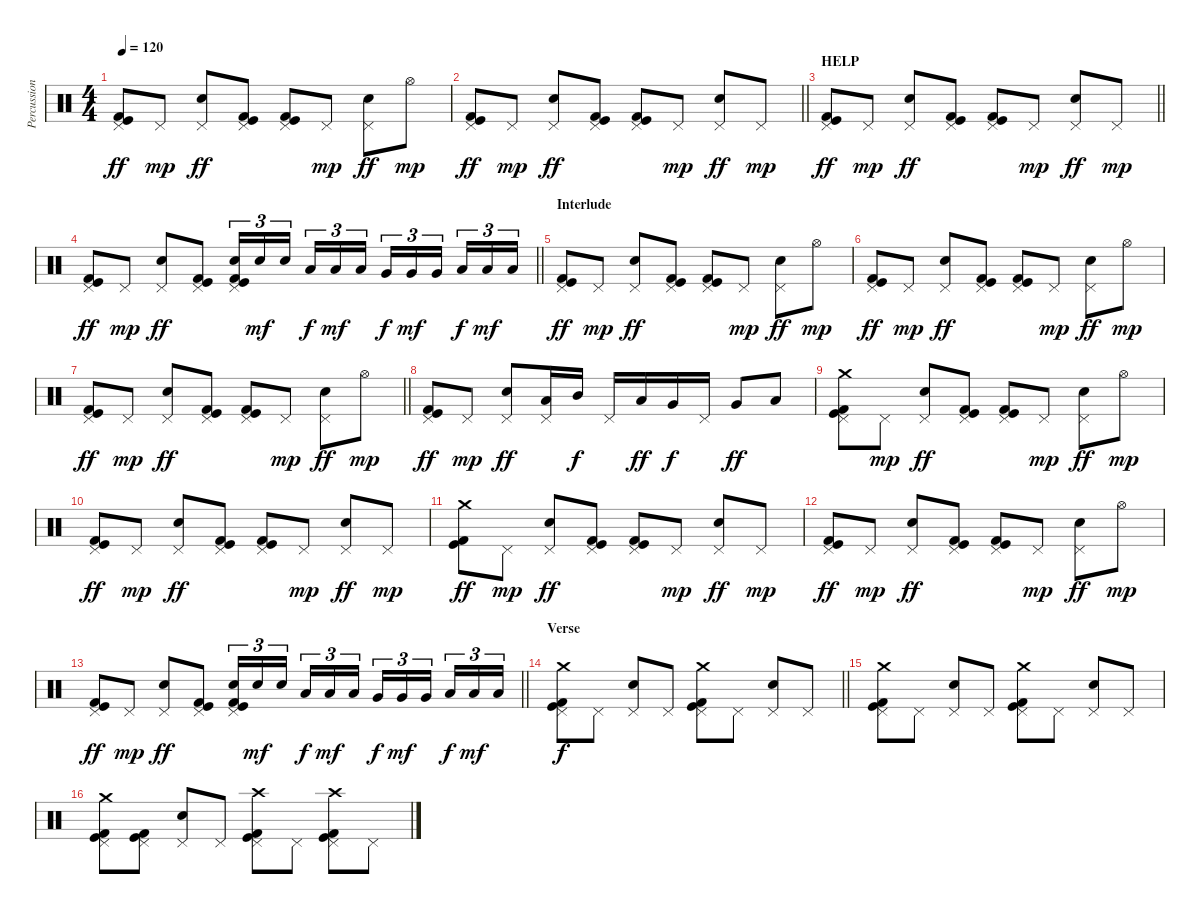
\track ("Percussion" "Percussion") {instrument percussion}
\staff {score}
\articulation defaults
\ts (4 4)
\tempo 120
\clef neutral
\ks c
("Pedal Hi-Hat (hit)" "Kick (hit) 2" "Kick (hit)").8{dy ff} "Pedal Hi-Hat (hit)".8{dy mp} ("Pedal Hi-Hat (hit)" "Electric Snare (hit)").8{dy ff} ("Pedal Hi-Hat (hit)" "Kick (hit) 2" "Kick (hit)").8 ("Pedal Hi-Hat (hit)" "Kick (hit) 2" "Kick (hit)").8 "Pedal Hi-Hat (hit)".8{dy mp} ("Pedal Hi-Hat (hit)" "Electric Snare (hit)").8{dy ff} "Hi-Hat (open)".8{dy mp} |
\barLineRight lightlight
("Pedal Hi-Hat (hit)" "Kick (hit) 2" "Kick (hit)").8{dy ff} "Pedal Hi-Hat (hit)".8{dy mp} ("Pedal Hi-Hat (hit)" "Electric Snare (hit)").8{dy ff} ("Pedal Hi-Hat (hit)" "Kick (hit) 2" "Kick (hit)").8 ("Pedal Hi-Hat (hit)" "Kick (hit) 2" "Kick (hit)").8 "Pedal Hi-Hat (hit)".8{dy mp} ("Pedal Hi-Hat (hit)" "Electric Snare (hit)").8{dy ff} "Pedal Hi-Hat (hit)".8{dy mp} |
\section ("" "HELP")
\barLineRight lightlight
("Pedal Hi-Hat (hit)" "Kick (hit) 2" "Kick (hit)").8{dy ff} "Pedal Hi-Hat (hit)".8{dy mp} ("Pedal Hi-Hat (hit)" "Electric Snare (hit)").8{dy ff} ("Pedal Hi-Hat (hit)" "Kick (hit) 2" "Kick (hit)").8 ("Pedal Hi-Hat (hit)" "Kick (hit) 2" "Kick (hit)").8 "Pedal Hi-Hat (hit)".8{dy mp} ("Pedal Hi-Hat (hit)" "Electric Snare (hit)").8{dy ff} "Pedal Hi-Hat (hit)".8{dy mp} |
\barLineRight lightlight
("Pedal Hi-Hat (hit)" "Kick (hit) 2" "Kick (hit)").8{dy ff} "Pedal Hi-Hat (hit)".8{dy mp} ("Pedal Hi-Hat (hit)" "Electric Snare (hit)").8{dy ff} ("Pedal Hi-Hat (hit)" "Kick (hit) 2" "Kick (hit)").8 ("Pedal Hi-Hat (hit)" "Electric Snare (hit)" "Kick (hit) 2" "Kick (hit)").16{tu (3 2)} "Electric Snare (hit)".16{tu (3 2) dy mf} "Electric Snare (hit)".16{tu (3 2) beam splitsecondary} "Low Tom (hit)".16{tu (3 2) dy f} "Low Tom (hit)".16{tu (3 2) dy mf} "Low Tom (hit)".16{tu (3 2)} "Very Low Tom (hit)".16{tu (3 2) dy f} "Very Low Tom (hit)".16{tu (3 2) dy mf} "Very Low Tom (hit)".16{tu (3 2) beam splitsecondary} "Low Floor Tom (hit)".16{tu (3 2) dy f} "Low Floor Tom (hit)".16{tu (3 2) dy mf} "Low Floor Tom (hit)".16{tu (3 2)} |
\section ("" "Interlude")
("Pedal Hi-Hat (hit)" "Kick (hit) 2" "Kick (hit)").8{dy ff} "Pedal Hi-Hat (hit)".8{dy mp} ("Pedal Hi-Hat (hit)" "Electric Snare (hit)").8{dy ff} ("Pedal Hi-Hat (hit)" "Kick (hit) 2" "Kick (hit)").8 ("Pedal Hi-Hat (hit)" "Kick (hit) 2" "Kick (hit)").8 "Pedal Hi-Hat (hit)".8{dy mp} ("Pedal Hi-Hat (hit)" "Electric Snare (hit)").8{dy ff} "Hi-Hat (open)".8{dy mp} |
("Pedal Hi-Hat (hit)" "Kick (hit) 2" "Kick (hit)").8{dy ff} "Pedal Hi-Hat (hit)".8{dy mp} ("Pedal Hi-Hat (hit)" "Electric Snare (hit)").8{dy ff} ("Pedal Hi-Hat (hit)" "Kick (hit) 2" "Kick (hit)").8 ("Pedal Hi-Hat (hit)" "Kick (hit) 2" "Kick (hit)").8 "Pedal Hi-Hat (hit)".8{dy mp} ("Pedal Hi-Hat (hit)" "Electric Snare (hit)").8{dy ff} "Hi-Hat (open)".8{dy mp} |
\barLineRight lightlight
("Pedal Hi-Hat (hit)" "Kick (hit) 2" "Kick (hit)").8{dy ff} "Pedal Hi-Hat (hit)".8{dy mp} ("Pedal Hi-Hat (hit)" "Electric Snare (hit)").8{dy ff} ("Pedal Hi-Hat (hit)" "Kick (hit) 2" "Kick (hit)").8 ("Pedal Hi-Hat (hit)" "Kick (hit) 2" "Kick (hit)").8 "Pedal Hi-Hat (hit)".8{dy mp} ("Pedal Hi-Hat (hit)" "Electric Snare (hit)").8{dy ff} "Hi-Hat (open)".8{dy mp} |
("Pedal Hi-Hat (hit)" "Kick (hit) 2" "Kick (hit)").8{dy ff} "Pedal Hi-Hat (hit)".8{dy mp} ("Pedal Hi-Hat (hit)" "Electric Snare (hit)").8{dy ff} ("Pedal Hi-Hat (hit)" "Low Tom (hit)").16 "Mid Tom (hit)".16{dy f} "Pedal Hi-Hat (hit)".16 "Low Tom (hit)".16{dy ff} "Very Low Tom (hit)".16{dy f} "Pedal Hi-Hat (hit)".16 "Very Low Tom (hit)".8{dy ff} "Low Floor Tom (hit)".8 |
("Crash medium (hit)" "Pedal Hi-Hat (hit)" "Kick (hit) 2" "Kick (hit)").8 "Pedal Hi-Hat (hit)".8{dy mp} ("Pedal Hi-Hat (hit)" "Electric Snare (hit)").8{dy ff} ("Pedal Hi-Hat (hit)" "Kick (hit) 2" "Kick (hit)").8 ("Pedal Hi-Hat (hit)" "Kick (hit) 2" "Kick (hit)").8 "Pedal Hi-Hat (hit)".8{dy mp} ("Pedal Hi-Hat (hit)" "Electric Snare (hit)").8{dy ff} "Hi-Hat (open)".8{dy mp} |
("Pedal Hi-Hat (hit)" "Kick (hit) 2" "Kick (hit)").8{dy ff} "Pedal Hi-Hat (hit)".8{dy mp} ("Pedal Hi-Hat (hit)" "Electric Snare (hit)").8{dy ff} ("Pedal Hi-Hat (hit)" "Kick (hit) 2" "Kick (hit)").8 ("Pedal Hi-Hat (hit)" "Kick (hit) 2" "Kick (hit)").8 "Pedal Hi-Hat (hit)".8{dy mp} ("Pedal Hi-Hat (hit)" "Electric Snare (hit)").8{dy ff} "Pedal Hi-Hat (hit)".8{dy mp} |
("Crash medium (hit)" "Kick (hit) 2" "Kick (hit)").8{dy ff} "Pedal Hi-Hat (hit)".8{dy mp} ("Pedal Hi-Hat (hit)" "Electric Snare (hit)").8{dy ff} ("Pedal Hi-Hat (hit)" "Kick (hit) 2" "Kick (hit)").8 ("Pedal Hi-Hat (hit)" "Kick (hit) 2" "Kick (hit)").8 "Pedal Hi-Hat (hit)".8{dy mp} ("Pedal Hi-Hat (hit)" "Electric Snare (hit)").8{dy ff} "Pedal Hi-Hat (hit)".8{dy mp} |
("Pedal Hi-Hat (hit)" "Kick (hit) 2" "Kick (hit)").8{dy ff} "Pedal Hi-Hat (hit)".8{dy mp} ("Pedal Hi-Hat (hit)" "Electric Snare (hit)").8{dy ff} ("Pedal Hi-Hat (hit)" "Kick (hit) 2" "Kick (hit)").8 ("Pedal Hi-Hat (hit)" "Kick (hit) 2" "Kick (hit)").8 "Pedal Hi-Hat (hit)".8{dy mp} ("Pedal Hi-Hat (hit)" "Electric Snare (hit)").8{dy ff} "Hi-Hat (open)".8{dy mp} |
\barLineRight lightlight
("Pedal Hi-Hat (hit)" "Kick (hit) 2" "Kick (hit)").8{dy ff} "Pedal Hi-Hat (hit)".8{dy mp} ("Pedal Hi-Hat (hit)" "Electric Snare (hit)").8{dy ff} ("Pedal Hi-Hat (hit)" "Kick (hit) 2" "Kick (hit)").8 ("Pedal Hi-Hat (hit)" "Electric Snare (hit)" "Kick (hit) 2" "Kick (hit)").16{tu (3 2)} "Electric Snare (hit)".16{tu (3 2) dy mf} "Electric Snare (hit)".16{tu (3 2) beam splitsecondary} "Low Tom (hit)".16{tu (3 2) dy f} "Low Tom (hit)".16{tu (3 2) dy mf} "Low Tom (hit)".16{tu (3 2)} "Very Low Tom (hit)".16{tu (3 2) dy f} "Very Low Tom (hit)".16{tu (3 2) dy mf} "Very Low Tom (hit)".16{tu (3 2) beam splitsecondary} "Low Floor Tom (hit)".16{tu (3 2) dy f} "Low Floor Tom (hit)".16{tu (3 2) dy mf} "Low Floor Tom (hit)".16{tu (3 2)} |
\section ("" "Verse")
\barLineRight lightlight
("Crash medium (hit)" "Pedal Hi-Hat (hit)" "Kick (hit)" "Kick (hit) 2").8{dy f} "Pedal Hi-Hat (hit)".8 ("Pedal Hi-Hat (hit)" "Electric Snare (hit)").8 "Pedal Hi-Hat (hit)".8 ("Crash medium (hit)" "Pedal Hi-Hat (hit)" "Kick (hit)" "Kick (hit) 2").8 "Pedal Hi-Hat (hit)".8 ("Pedal Hi-Hat (hit)" "Electric Snare (hit)").8 "Pedal Hi-Hat (hit)".8 |
("Crash medium (hit)" "Pedal Hi-Hat (hit)" "Kick (hit)" "Kick (hit) 2").8 "Pedal Hi-Hat (hit)".8 ("Pedal Hi-Hat (hit)" "Electric Snare (hit)").8 "Pedal Hi-Hat (hit)".8 ("Crash medium (hit)" "Pedal Hi-Hat (hit)" "Kick (hit)" "Kick (hit) 2").8 "Pedal Hi-Hat (hit)".8 ("Pedal Hi-Hat (hit)" "Electric Snare (hit)").8 "Pedal Hi-Hat (hit)".8 |
("Crash medium (hit)" "Pedal Hi-Hat (hit)" "Kick (hit)" "Kick (hit) 2").8 ("Pedal Hi-Hat (hit)" "Kick (hit)" "Kick (hit) 2").8 ("Pedal Hi-Hat (hit)" "Electric Snare (hit)").8 "Pedal Hi-Hat (hit)".8 ("Crash high (hit)" "Pedal Hi-Hat (hit)" "Kick (hit)" "Kick (hit) 2").8 "Pedal Hi-Hat (hit)".8 ("Crash high (hit)" "Pedal Hi-Hat (hit)" "Kick (hit)" "Kick (hit) 2").8 "Pedal Hi-Hat (hit)".8
